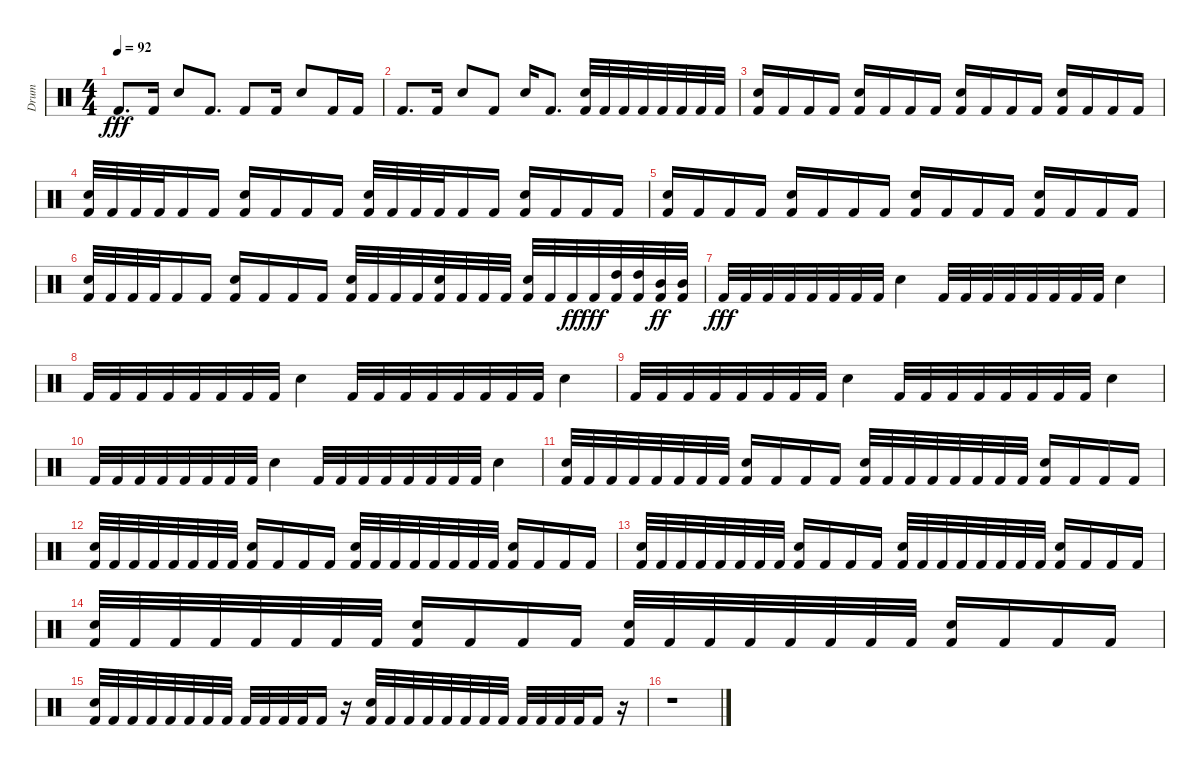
\track ("Drum" "Drum") {instrument percussion}
\staff {score}
\articulation defaults
\ts (4 4)
\tempo 92
\clef neutral
\ks c "Kick (hit) 2".8{d dy fff} "Kick (hit) 2".16 "Electric Snare (hit)".8 "Kick (hit) 2".8{d} "Kick (hit) 2".8 "Kick (hit) 2".16 "Electric Snare (hit)".8 "Kick (hit) 2".16 "Kick (hit) 2".16
|
"Kick (hit) 2".8{d} "Kick (hit) 2".16 "Electric Snare (hit)".8 "Kick (hit) 2".8 "Electric Snare (hit)".16 "Kick (hit) 2".8{d} ("Electric Snare (hit)" "Kick (hit) 2").32 "Kick (hit) 2".32 "Kick (hit) 2".32 "Kick (hit) 2".32 "Kick (hit) 2".32 "Kick (hit) 2".32 "Kick (hit) 2".32 "Kick (hit) 2".32 |
("Electric Snare (hit)" "Kick (hit) 2").16 "Kick (hit) 2".16 "Kick (hit) 2".16 "Kick (hit) 2".16 ("Electric Snare (hit)" "Kick (hit) 2").16 "Kick (hit) 2".16 "Kick (hit) 2".16 "Kick (hit) 2".16 ("Electric Snare (hit)" "Kick (hit) 2").16 "Kick (hit) 2".16 "Kick (hit) 2".16 "Kick (hit) 2".16 ("Electric Snare (hit)" "Kick (hit) 2").16 "Kick (hit) 2".16 "Kick (hit) 2".16 "Kick (hit) 2".16 |
("Electric Snare (hit)" "Kick (hit) 2").32 "Kick (hit) 2".32 "Kick (hit) 2".32 "Kick (hit) 2".32 "Kick (hit) 2".16 "Kick (hit) 2".16 ("Electric Snare (hit)" "Kick (hit) 2").16 "Kick (hit) 2".16 "Kick (hit) 2".16 "Kick (hit) 2".16 ("Electric Snare (hit)" "Kick (hit) 2").32 "Kick (hit) 2".32 "Kick (hit) 2".32 "Kick (hit) 2".32 "Kick (hit) 2".16 "Kick (hit) 2".16 ("Electric Snare (hit)" "Kick (hit) 2").16 "Kick (hit) 2".16 "Kick (hit) 2".16 "Kick (hit) 2".16 |
("Electric Snare (hit)" "Kick (hit) 2").16 "Kick (hit) 2".16 "Kick (hit) 2".16 "Kick (hit) 2".16 ("Electric Snare (hit)" "Kick (hit) 2").16 "Kick (hit) 2".16 "Kick (hit) 2".16 "Kick (hit) 2".16 ("Electric Snare (hit)" "Kick (hit) 2").16 "Kick (hit) 2".16 "Kick (hit) 2".16 "Kick (hit) 2".16 ("Electric Snare (hit)" "Kick (hit) 2").16 "Kick (hit) 2".16 "Kick (hit) 2".16 "Kick (hit) 2".16 |
("Electric Snare (hit)" "Kick (hit) 2").32 "Kick (hit) 2".32 "Kick (hit) 2".32 "Kick (hit) 2".32 "Kick (hit) 2".16 "Kick (hit) 2".16 ("Electric Snare (hit)" "Kick (hit) 2").16 "Kick (hit) 2".16 "Kick (hit) 2".16 "Kick (hit) 2".16 ("Electric Snare (hit)" "Kick (hit) 2").32 "Kick (hit) 2".32 "Kick (hit) 2".32 "Kick (hit) 2".32 ("Electric Snare (hit)" "Kick (hit) 2").32 "Kick (hit) 2".32 "Kick (hit) 2".32 "Kick (hit) 2".32 ("Electric Snare (hit)" "Kick (hit) 2").32 "Kick (hit) 2".32 "Kick (hit) 2".32{dy ff} "Kick (hit) 2".32{dy fff} ("High Tom (hit)" "Kick (hit) 2").32 ("High Tom (hit)" "Kick (hit) 2").32 ("Mid Tom (hit)" "Kick (hit) 2").32{dy ff} ("Mid Tom (hit)" "Kick (hit) 2").32 |
"Kick (hit) 2".32{dy fff} "Kick (hit) 2".32 "Kick (hit) 2".32 "Kick (hit) 2".32 "Kick (hit) 2".32 "Kick (hit) 2".32 "Kick (hit) 2".32 "Kick (hit) 2".32 "Electric Snare (hit)".4 "Kick (hit) 2".32 "Kick (hit) 2".32 "Kick (hit) 2".32 "Kick (hit) 2".32 "Kick (hit) 2".32 "Kick (hit) 2".32 "Kick (hit) 2".32 "Kick (hit) 2".32 "Electric Snare (hit)".4 |
"Kick (hit) 2".32 "Kick (hit) 2".32 "Kick (hit) 2".32 "Kick (hit) 2".32 "Kick (hit) 2".32 "Kick (hit) 2".32 "Kick (hit) 2".32 "Kick (hit) 2".32 "Electric Snare (hit)".4 "Kick (hit) 2".32 "Kick (hit) 2".32 "Kick (hit) 2".32 "Kick (hit) 2".32 "Kick (hit) 2".32 "Kick (hit) 2".32 "Kick (hit) 2".32 "Kick (hit) 2".32 "Electric Snare (hit)".4 |
"Kick (hit) 2".32 "Kick (hit) 2".32 "Kick (hit) 2".32 "Kick (hit) 2".32 "Kick (hit) 2".32 "Kick (hit) 2".32 "Kick (hit) 2".32 "Kick (hit) 2".32 "Electric Snare (hit)".4 "Kick (hit) 2".32 "Kick (hit) 2".32 "Kick (hit) 2".32 "Kick (hit) 2".32 "Kick (hit) 2".32 "Kick (hit) 2".32 "Kick (hit) 2".32 "Kick (hit) 2".32 "Electric Snare (hit)".4 |
"Kick (hit) 2".32 "Kick (hit) 2".32 "Kick (hit) 2".32 "Kick (hit) 2".32 "Kick (hit) 2".32 "Kick (hit) 2".32 "Kick (hit) 2".32 "Kick (hit) 2".32 "Electric Snare (hit)".4 "Kick (hit) 2".32 "Kick (hit) 2".32 "Kick (hit) 2".32 "Kick (hit) 2".32 "Kick (hit) 2".32 "Kick (hit) 2".32 "Kick (hit) 2".32 "Kick (hit) 2".32 "Electric Snare (hit)".4 |
("Electric Snare (hit)" "Kick (hit) 2").32 "Kick (hit) 2".32 "Kick (hit) 2".32 "Kick (hit) 2".32 "Kick (hit) 2".32 "Kick (hit) 2".32 "Kick (hit) 2".32 "Kick (hit) 2".32 ("Electric Snare (hit)" "Kick (hit) 2").16 "Kick (hit) 2".16 "Kick (hit) 2".16 "Kick (hit) 2".16 ("Electric Snare (hit)" "Kick (hit) 2").32 "Kick (hit) 2".32 "Kick (hit) 2".32 "Kick (hit) 2".32 "Kick (hit) 2".32 "Kick (hit) 2".32 "Kick (hit) 2".32 "Kick (hit) 2".32 ("Electric Snare (hit)" "Kick (hit) 2").16 "Kick (hit) 2".16 "Kick (hit) 2".16 "Kick (hit) 2".16 |
("Electric Snare (hit)" "Kick (hit) 2").32 "Kick (hit) 2".32 "Kick (hit) 2".32 "Kick (hit) 2".32 "Kick (hit) 2".32 "Kick (hit) 2".32 "Kick (hit) 2".32 "Kick (hit) 2".32 ("Electric Snare (hit)" "Kick (hit) 2").16 "Kick (hit) 2".16 "Kick (hit) 2".16 "Kick (hit) 2".16 ("Electric Snare (hit)" "Kick (hit) 2").32 "Kick (hit) 2".32 "Kick (hit) 2".32 "Kick (hit) 2".32 "Kick (hit) 2".32 "Kick (hit) 2".32 "Kick (hit) 2".32 "Kick (hit) 2".32 ("Electric Snare (hit)" "Kick (hit) 2").16 "Kick (hit) 2".16 "Kick (hit) 2".16 "Kick (hit) 2".16 |
("Electric Snare (hit)" "Kick (hit) 2").32 "Kick (hit) 2".32 "Kick (hit) 2".32 "Kick (hit) 2".32 "Kick (hit) 2".32 "Kick (hit) 2".32 "Kick (hit) 2".32 "Kick (hit) 2".32 ("Electric Snare (hit)" "Kick (hit) 2").16 "Kick (hit) 2".16 "Kick (hit) 2".16 "Kick (hit) 2".16 ("Electric Snare (hit)" "Kick (hit) 2").32 "Kick (hit) 2".32 "Kick (hit) 2".32 "Kick (hit) 2".32 "Kick (hit) 2".32 "Kick (hit) 2".32 "Kick (hit) 2".32 "Kick (hit) 2".32 ("Electric Snare (hit)" "Kick (hit) 2").16 "Kick (hit) 2".16 "Kick (hit) 2".16 "Kick (hit) 2".16 |
("Electric Snare (hit)" "Kick (hit) 2").32 "Kick (hit) 2".32 "Kick (hit) 2".32 "Kick (hit) 2".32 "Kick (hit) 2".32 "Kick (hit) 2".32 "Kick (hit) 2".32 "Kick (hit) 2".32 ("Electric Snare (hit)" "Kick (hit) 2").16 "Kick (hit) 2".16 "Kick (hit) 2".16 "Kick (hit) 2".16 ("Electric Snare (hit)" "Kick (hit) 2").32 "Kick (hit) 2".32 "Kick (hit) 2".32 "Kick (hit) 2".32 "Kick (hit) 2".32 "Kick (hit) 2".32 "Kick (hit) 2".32 "Kick (hit) 2".32 ("Electric Snare (hit)" "Kick (hit) 2").16 "Kick (hit) 2".16 "Kick (hit) 2".16 "Kick (hit) 2".16 |
("Electric Snare (hit)" "Kick (hit) 2").32 "Kick (hit) 2".32 "Kick (hit) 2".32 "Kick (hit) 2".32 "Kick (hit) 2".32 "Kick (hit) 2".32 "Kick (hit) 2".32 "Kick (hit) 2".32 "Kick (hit) 2".32 "Kick (hit) 2".32 "Kick (hit) 2".32 "Kick (hit) 2".32 "Kick (hit) 2".16 r.16 ("Electric Snare (hit)" "Kick (hit) 2").32 "Kick (hit) 2".32 "Kick (hit) 2".32 "Kick (hit) 2".32 "Kick (hit) 2".32 "Kick (hit) 2".32 "Kick (hit) 2".32 "Kick (hit) 2".32 "Kick (hit) 2".32 "Kick (hit) 2".32 "Kick (hit) 2".32 "Kick (hit) 2".32 "Kick (hit) 2".16 r.16 |
r.1
